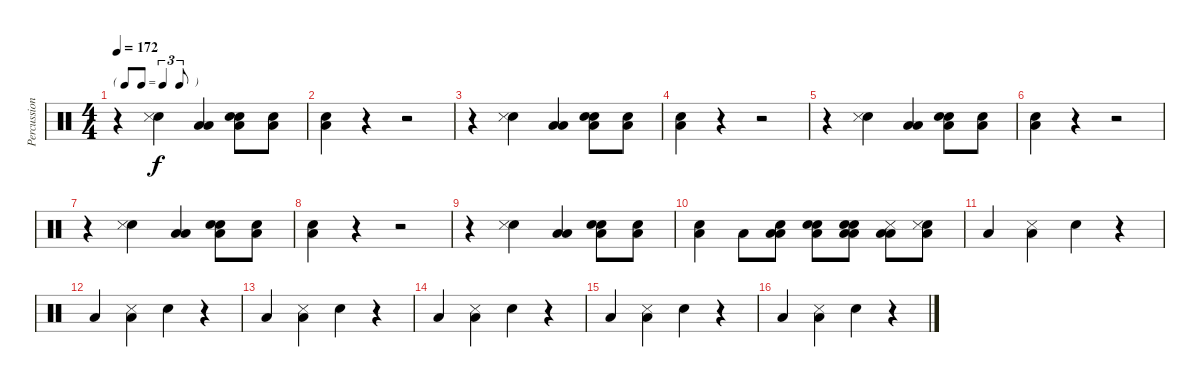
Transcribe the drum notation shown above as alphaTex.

\track ("Percussions" "Percussion") {instrument percussion}
\staff {score}
\articulation defaults
\ts (4 4)
\tf triplet8th
\tempo 172
\clef neutral
\ks c
r.4{dy f} ("Snare (hit) 2" "Snare (side stick) 3").4 ("Low Floor Tom (hit)" "Low Tom (hit)").4 ("Low Tom (hit)" "Snare (hit) 2" "Snare (hit) 2").8 ("Snare (hit) 2" "Low Tom (hit)").8 |
("Low Floor Tom (hit)" "Snare (hit) 2").4 r.4 r.2 |
r.4 ("Snare (hit) 2" "Snare (side stick) 3").4 ("Low Floor Tom (hit)" "Low Tom (hit)").4 ("Low Tom (hit)" "Snare (hit) 2" "Snare (hit) 2").8 ("Snare (hit) 2" "Low Tom (hit)").8 |
("Low Floor Tom (hit)" "Snare (hit) 2").4 r.4 r.2 |
r.4 ("Snare (hit) 2" "Snare (side stick) 3").4 ("Low Floor Tom (hit)" "Low Tom (hit)").4 ("Low Tom (hit)" "Snare (hit) 2" "Snare (hit) 2").8 ("Snare (hit) 2" "Low Tom (hit)").8 |
("Low Floor Tom (hit)" "Snare (hit) 2").4 r.4 r.2 |
r.4 ("Snare (hit) 2" "Snare (side stick) 3").4 ("Low Floor Tom (hit)" "Low Tom (hit)").4 ("Low Tom (hit)" "Snare (hit) 2" "Snare (hit) 2").8 ("Snare (hit) 2" "Low Tom (hit)").8 |
("Low Floor Tom (hit)" "Snare (hit) 2").4 r.4 r.2 |
r.4 ("Snare (hit) 2" "Snare (side stick) 3").4 ("Low Floor Tom (hit)" "Low Tom (hit)").4 ("Low Tom (hit)" "Snare (hit) 2" "Snare (hit) 2").8 ("Snare (hit) 2" "Low Tom (hit)").8 |
("Low Floor Tom (hit)" "Snare (hit) 2").4 "Low Floor Tom (hit)".8 ("Low Tom (hit)" "Low Tom (hit)" "Snare (hit) 2").8 ("Snare (hit) 2" "Low Floor Tom (hit)" "Snare (hit) 2").8 ("Snare (hit) 2" "Electric Snare (hit)" "Low Floor Tom (hit)" "Low Tom (hit)").8 ("Low Tom (hit)" "Low Floor Tom (hit)" "Snare (side stick) 3").8 ("Snare (hit) 2" "Snare (side stick) 3" "Low Floor Tom (hit)").8 |
"Low Tom (hit)".4 ("Low Floor Tom (hit)" "Snare (side stick) 3").4 "Snare (hit) 2".4 r.4 |
"Low Floor Tom (hit)".4 ("Low Floor Tom (hit)" "Snare (side stick) 3").4 "Snare (hit) 2".4 r.4 |
"Low Tom (hit)".4 ("Low Floor Tom (hit)" "Snare (side stick) 3").4 "Snare (hit) 2".4 r.4 |
"Low Floor Tom (hit)".4 ("Low Floor Tom (hit)" "Snare (side stick) 3").4 "Snare (hit) 2".4 r.4 |
"Low Tom (hit)".4 ("Low Floor Tom (hit)" "Snare (side stick) 3").4 "Snare (hit) 2".4 r.4 |
"Low Floor Tom (hit)".4 ("Low Floor Tom (hit)" "Snare (side stick) 3").4 "Snare (hit) 2".4 r.4
